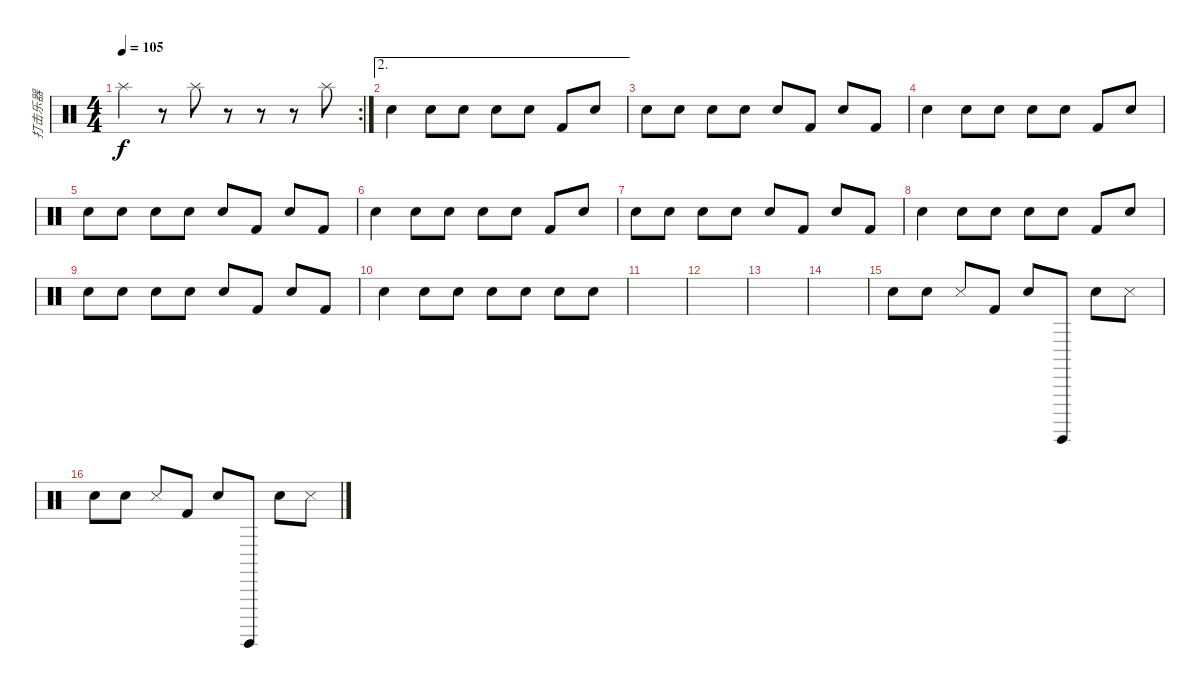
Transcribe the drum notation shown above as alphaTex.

\track ("打击乐器" "打击乐器") {instrument percussion}
\staff {score}
\articulation defaults
\rc 2
\ts (4 4)
\tempo 105
\clef neutral
\ks c "Splash (hit)".4{dy f}
r.8 "Splash (hit)".8 r.8 r.8 r.8 "Splash (hit)".8 |
\ae 2 "Snare (hit) 2".4 "Snare (hit) 2".8 "Electric Snare (hit)".8 "Hand Clap (hit)".8 "Snare (hit) 2".8 "Kick (hit) 2".8 "Snare (hit) 2".8
|
"Snare (hit) 2".8 "Snare (hit) 2".8 "Electric Snare (hit)".8 "Hand Clap (hit)".8 "Snare (hit) 2".8 "Kick (hit) 2".8 "Snare (hit) 2".8 "Kick (hit) 2".8 |
"Snare (hit) 2".4 "Snare (hit) 2".8 "Electric Snare (hit)".8 "Hand Clap (hit)".8 "Snare (hit) 2".8 "Kick (hit) 2".8 "Snare (hit) 2".8 |
"Snare (hit) 2".8 "Snare (hit) 2".8 "Electric Snare (hit)".8 "Hand Clap (hit)".8 "Snare (hit) 2".8 "Kick (hit) 2".8 "Snare (hit) 2".8 "Kick (hit) 2".8 |
"Snare (hit) 2".4 "Snare (hit) 2".8 "Electric Snare (hit)".8 "Hand Clap (hit)".8 "Snare (hit) 2".8 "Kick (hit) 2".8 "Snare (hit) 2".8 |
"Snare (hit) 2".8 "Snare (hit) 2".8 "Electric Snare (hit)".8 "Hand Clap (hit)".8 "Snare (hit) 2".8 "Kick (hit) 2".8 "Snare (hit) 2".8 "Kick (hit) 2".8 |
"Snare (hit) 2".4 "Snare (hit) 2".8 "Electric Snare (hit)".8 "Hand Clap (hit)".8 "Snare (hit) 2".8 "Kick (hit) 2".8 "Snare (hit) 2".8 |
"Snare (hit) 2".8 "Snare (hit) 2".8 "Electric Snare (hit)".8 "Hand Clap (hit)".8 "Snare (hit) 2".8 "Kick (hit) 2".8 "Snare (hit) 2".8 "Kick (hit) 2".8 |
"Snare (hit) 2".4 "Snare (hit) 2".8 "Electric Snare (hit)".8 "Hand Clap (hit)".8 "Snare (hit) 2".8 "Snare (hit) 2".8 "Snare (hit) 2".8 |
|
|
|
|
"Snare (hit) 2".8 "Snare (hit) 2".8 "Snare (side stick) 3".8 "Kick (hit) 2".8 "Snare (hit) 2".8 "Surdo (hit)".8 "Snare (hit) 2".8 "Snare (side stick) 3".8 |
"Snare (hit) 2".8 "Snare (hit) 2".8 "Snare (side stick) 3".8 "Kick (hit) 2".8 "Snare (hit) 2".8 "Surdo (hit)".8 "Snare (hit) 2".8 "Snare (side stick) 3".8
